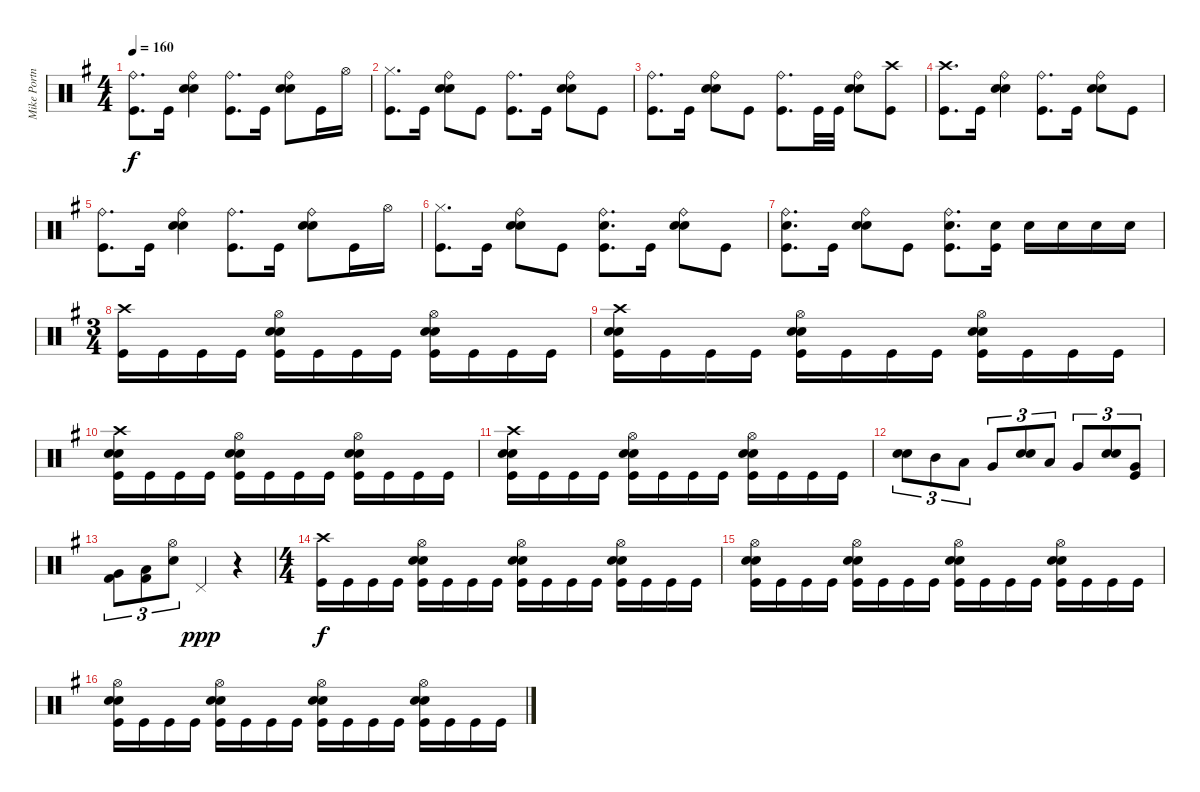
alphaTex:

\track ("Mike Portnoy - Drums" "Mike Portn") {instrument percussion}
\staff {score}
\articulation defaults
\ts (4 4)
\tempo 160
\clef neutral
\ks g
("Ride (bell)" "Kick (hit)").8{d dy f} "Kick (hit)".16 ("Ride (bell)" "Snare (hit) 2" "Electric Snare (hit)").4 ("Ride (bell)" "Kick (hit)").8{d} "Kick (hit)".16 ("Ride (bell)" "Snare (hit) 2" "Electric Snare (hit)").8 "Kick (hit)".16 "Hi-Hat (open)".16 |
("Hi-Hat (closed)" "Kick (hit)").8{d} "Kick (hit)".16 ("Ride (bell)" "Snare (hit) 2" "Electric Snare (hit)").8 "Kick (hit)".8 ("Ride (bell)" "Kick (hit)").8{d} "Kick (hit)".16 ("Ride (bell)" "Snare (hit) 2" "Electric Snare (hit)").8 "Kick (hit)".8 |
("Ride (bell)" "Kick (hit)").8{d} "Kick (hit)".16 ("Ride (bell)" "Snare (hit) 2" "Electric Snare (hit)").8 "Kick (hit)".8 ("Ride (bell)" "Kick (hit)").8{d} "Kick (hit)".32 "Kick (hit)".32 ("Ride (bell)" "Snare (hit) 2" "Electric Snare (hit)").8 ("Crash high (hit)" "Kick (hit)").8 |
("Crash high (hit)" "Kick (hit)").8{d} "Kick (hit)".16 ("Ride (bell)" "Snare (hit) 2" "Electric Snare (hit)").4 ("Ride (bell)" "Kick (hit)").8{d} "Kick (hit)".16 ("Ride (bell)" "Snare (hit) 2" "Electric Snare (hit)").8 "Kick (hit)".8 |
("Ride (bell)" "Kick (hit)").8{d} "Kick (hit)".16 ("Ride (bell)" "Snare (hit) 2" "Electric Snare (hit)").4 ("Ride (bell)" "Kick (hit)").8{d} "Kick (hit)".16 ("Ride (bell)" "Snare (hit) 2" "Electric Snare (hit)").8 "Kick (hit)".16 "Hi-Hat (open)".16 |
("Hi-Hat (closed)" "Kick (hit)").8{d} "Kick (hit)".16 ("Ride (bell)" "Snare (hit) 2" "Electric Snare (hit)").8 "Kick (hit)".8 ("Ride (bell)" "Electric Snare (hit)" "Kick (hit)").8{d} "Kick (hit)".16 ("Ride (bell)" "Snare (hit) 2" "Electric Snare (hit)").8 "Kick (hit)".8 |
("Ride (bell)" "Electric Snare (hit)" "Kick (hit)").8{d} "Kick (hit)".16 ("Ride (bell)" "Snare (hit) 2" "Electric Snare (hit)").8 "Kick (hit)".8 ("Ride (bell)" "Electric Snare (hit)" "Kick (hit)").8{d} ("Electric Snare (hit)" "Kick (hit)").16 "Electric Snare (hit)".16 "Electric Snare (hit)".16 "Electric Snare (hit)".16 "Electric Snare (hit)".16 |
\ts (3 4)
("Crash high (hit)" "Kick (hit)").16 "Kick (hit)".16 "Kick (hit)".16 "Kick (hit)".16 ("Hi-Hat (open)" "Snare (hit) 2" "Electric Snare (hit)" "Kick (hit)").16 "Kick (hit)".16 "Kick (hit)".16 "Kick (hit)".16 ("Hi-Hat (open)" "Snare (hit) 2" "Electric Snare (hit)" "Kick (hit)").16 "Kick (hit)".16 "Kick (hit)".16 "Kick (hit)".16 |
("Crash high (hit)" "Snare (hit) 2" "Electric Snare (hit)" "Kick (hit)").16 "Kick (hit)".16 "Kick (hit)".16 "Kick (hit)".16 ("Hi-Hat (open)" "Snare (hit) 2" "Electric Snare (hit)" "Kick (hit)").16 "Kick (hit)".16 "Kick (hit)".16 "Kick (hit)".16 ("Hi-Hat (open)" "Snare (hit) 2" "Electric Snare (hit)" "Kick (hit)").16 "Kick (hit)".16 "Kick (hit)".16 "Kick (hit)".16 |
("Crash high (hit)" "Snare (hit) 2" "Electric Snare (hit)" "Kick (hit)").16 "Kick (hit)".16 "Kick (hit)".16 "Kick (hit)".16 ("Hi-Hat (open)" "Snare (hit) 2" "Electric Snare (hit)" "Kick (hit)").16 "Kick (hit)".16 "Kick (hit)".16 "Kick (hit)".16 ("Hi-Hat (open)" "Snare (hit) 2" "Electric Snare (hit)" "Kick (hit)").16 "Kick (hit)".16 "Kick (hit)".16 "Kick (hit)".16 |
("Crash high (hit)" "Snare (hit) 2" "Electric Snare (hit)" "Kick (hit)").16 "Kick (hit)".16 "Kick (hit)".16 "Kick (hit)".16 ("Hi-Hat (open)" "Snare (hit) 2" "Electric Snare (hit)" "Kick (hit)").16 "Kick (hit)".16 "Kick (hit)".16 "Kick (hit)".16 ("Hi-Hat (open)" "Snare (hit) 2" "Electric Snare (hit)" "Kick (hit)").16 "Kick (hit)".16 "Kick (hit)".16 "Kick (hit)".16 |
("Snare (hit) 2" "Electric Snare (hit)").8{tu (3 2)} "Mid Tom (hit)".8{tu (3 2)} "Low Tom (hit)".8{tu (3 2)} "Very Low Tom (hit)".8{tu (3 2)} ("Snare (hit) 2" "Electric Snare (hit)").8{tu (3 2)} "Low Tom (hit)".8{tu (3 2)} "Very Low Tom (hit)".8{tu (3 2)} ("Snare (hit) 2" "Electric Snare (hit)").8{tu (3 2)} ("Very Low Tom (hit)" "Kick (hit)").8{tu (3 2)} |
("Very Low Tom (hit)" "Kick (hit) 2").8{tu (3 2)} ("Low Floor Tom (hit)" "Kick (hit) 2").8{tu (3 2)} ("Hi-Hat (open)" "Electric Snare (hit)").8{tu (3 2)} "Pedal Hi-Hat (hit)".4{dy ppp} r.4 |
\ts (4 4)
("Crash high (hit)" "Kick (hit)").16{dy f} "Kick (hit)".16 "Kick (hit)".16 "Kick (hit)".16 ("Hi-Hat (open)" "Snare (hit) 2" "Electric Snare (hit)" "Kick (hit)").16 "Kick (hit)".16 "Kick (hit)".16 "Kick (hit)".16 ("Hi-Hat (open)" "Snare (hit) 2" "Electric Snare (hit)" "Kick (hit)").16 "Kick (hit)".16 "Kick (hit)".16 "Kick (hit)".16 ("Hi-Hat (open)" "Snare (hit) 2" "Electric Snare (hit)" "Kick (hit)").16 "Kick (hit)".16 "Kick (hit)".16 "Kick (hit)".16 |
("Hi-Hat (open)" "Snare (hit) 2" "Electric Snare (hit)" "Kick (hit)").16 "Kick (hit)".16 "Kick (hit)".16 "Kick (hit)".16 ("Hi-Hat (open)" "Snare (hit) 2" "Electric Snare (hit)" "Kick (hit)").16 "Kick (hit)".16 "Kick (hit)".16 "Kick (hit)".16 ("Hi-Hat (open)" "Snare (hit) 2" "Electric Snare (hit)" "Kick (hit)").16 "Kick (hit)".16 "Kick (hit)".16 "Kick (hit)".16 ("Hi-Hat (open)" "Snare (hit) 2" "Electric Snare (hit)" "Kick (hit)").16 "Kick (hit)".16 "Kick (hit)".16 "Kick (hit)".16 |
("Hi-Hat (open)" "Snare (hit) 2" "Electric Snare (hit)" "Kick (hit)").16 "Kick (hit)".16 "Kick (hit)".16 "Kick (hit)".16 ("Hi-Hat (open)" "Snare (hit) 2" "Electric Snare (hit)" "Kick (hit)").16 "Kick (hit)".16 "Kick (hit)".16 "Kick (hit)".16 ("Hi-Hat (open)" "Snare (hit) 2" "Electric Snare (hit)" "Kick (hit)").16 "Kick (hit)".16 "Kick (hit)".16 "Kick (hit)".16 ("Hi-Hat (open)" "Snare (hit) 2" "Electric Snare (hit)" "Kick (hit)").16 "Kick (hit)".16 "Kick (hit)".16 "Kick (hit)".16
